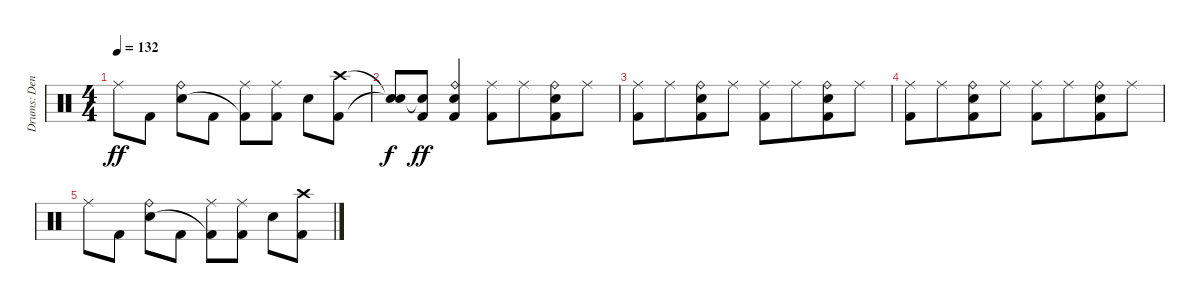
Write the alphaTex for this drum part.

\track ("Drums: Denny" "Drums: Den") {instrument percussion}
\staff {score}
\articulation defaults
\ts (4 4)
\tempo 132
\clef neutral
\ks c "Ride (middle)".8{dy ff} "Kick (hit) 2".8
("Ride (bell)" "Electric Snare (hit)").8 "Kick (hit) 2".8 ("Ride (middle)" "Kick (hit) 2"{t}).8 ("Ride (middle)" "Kick (hit) 2").8 "Electric Snare (hit)".8 ("Crash high (hit)" "Kick (hit) 2").8 |
("Snare (hit)"{t} "Snare (hit)"{t}).8{dy f} ("Snare (hit)"{t} "Kick (hit) 2").8{dy ff} ("Ride (bell)" "Electric Snare (hit)" "Kick (hit) 2").4 ("Ride (middle)" "Kick (hit) 2").8 "Ride (middle)".8{beam merge} ("Ride (bell)" "Electric Snare (hit)" "Kick (hit) 2").8 "Ride (middle)".8 |
("Ride (middle)" "Kick (hit) 2").8 "Ride (middle)".8{beam merge} ("Ride (bell)" "Electric Snare (hit)" "Kick (hit) 2").8 "Ride (middle)".8 ("Ride (middle)" "Kick (hit) 2").8 "Ride (middle)".8{beam merge} ("Ride (bell)" "Electric Snare (hit)" "Kick (hit) 2").8 "Ride (middle)".8 |
("Ride (middle)" "Kick (hit) 2").8 "Ride (middle)".8{beam merge} ("Ride (bell)" "Electric Snare (hit)" "Kick (hit) 2").8 "Ride (middle)".8 ("Ride (middle)" "Kick (hit) 2").8 "Ride (middle)".8{beam merge} ("Ride (bell)" "Electric Snare (hit)" "Kick (hit) 2").8 "Ride (middle)".8 |
"Ride (middle)".8 "Kick (hit) 2".8 ("Ride (bell)" "Electric Snare (hit)").8 "Kick (hit) 2".8 ("Ride (middle)" "Kick (hit) 2"{t}).8 ("Ride (middle)" "Kick (hit) 2").8 "Electric Snare (hit)".8 ("Crash high (hit)" "Kick (hit) 2").8
